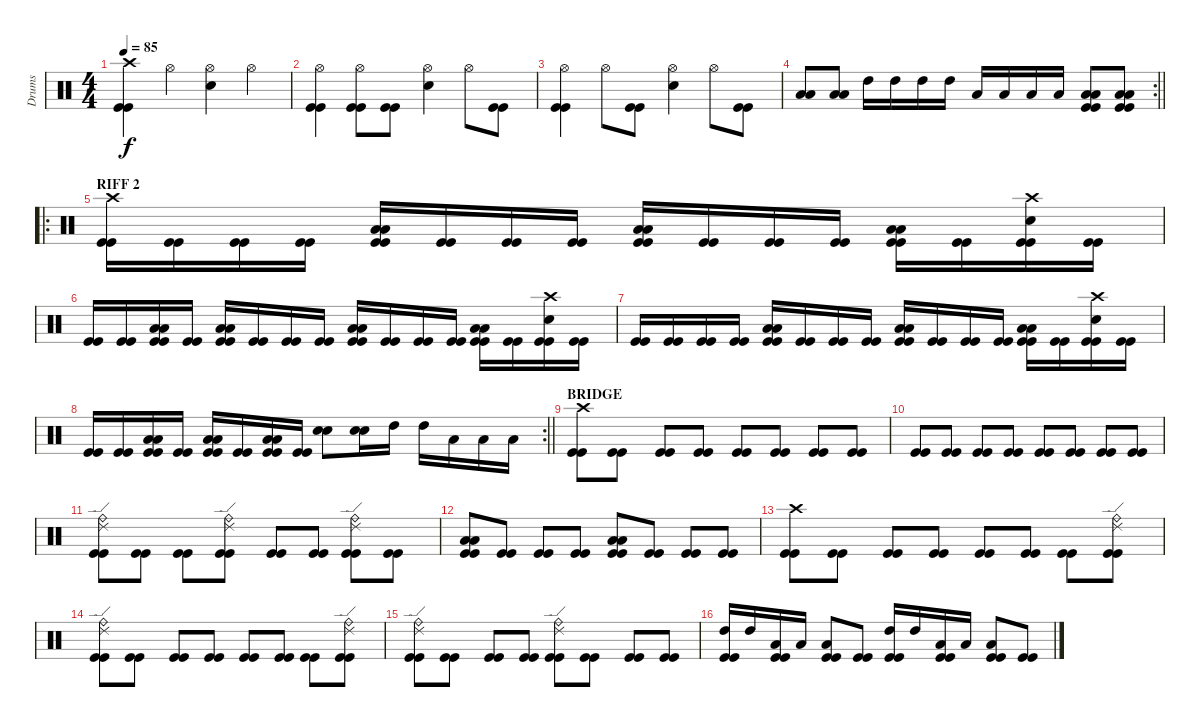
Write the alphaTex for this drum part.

\track ("Drums" "Drums") {instrument percussion}
\staff {score}
\articulation defaults
\ts (4 4)
\tempo 85
\clef neutral
\ks c
("Crash high (hit)" "Kick (hit)" "Kick (hit)").4{dy f} "Hi-Hat (open)".4 ("Hi-Hat (open)" "Snare (hit) 2").4 "Hi-Hat (open)".4 |
("Hi-Hat (open)" "Kick (hit)" "Kick (hit)").4 ("Hi-Hat (open)" "Kick (hit)" "Kick (hit)").8 ("Kick (hit)" "Kick (hit)").8 ("Hi-Hat (open)" "Snare (hit) 2").4 "Hi-Hat (open)".8 ("Kick (hit)" "Kick (hit)").8 |
("Hi-Hat (open)" "Kick (hit)" "Kick (hit)").4 "Hi-Hat (open)".8 ("Kick (hit)" "Kick (hit)").8 ("Hi-Hat (open)" "Snare (hit) 2").4 "Hi-Hat (open)".8 ("Kick (hit)" "Kick (hit)").8 |
\rc 2
\barLineRight lightlight
("Low Floor Tom (hit)" "Low Tom (hit)").8 ("Low Floor Tom (hit)" "Low Tom (hit)").8 "High Tom (hit)".16 "High Tom (hit)".16 "High Tom (hit)".16 "High Tom (hit)".16 "Low Tom (hit)".16 "Low Tom (hit)".16 "Low Tom (hit)".16 "Low Tom (hit)".16 ("Low Tom (hit)" "Low Floor Tom (hit)" "Kick (hit)" "Kick (hit)").8 ("Low Tom (hit)" "Low Floor Tom (hit)" "Kick (hit)" "Kick (hit)").8 |
\ro
\section ("" "RIFF 2")
("Crash high (hit)" "Kick (hit)" "Kick (hit)").16 ("Kick (hit)" "Kick (hit)").16 ("Kick (hit)" "Kick (hit)").16 ("Kick (hit)" "Kick (hit)").16 ("Low Floor Tom (hit)" "Low Tom (hit)" "Kick (hit)" "Kick (hit)").16 ("Kick (hit)" "Kick (hit)").16 ("Kick (hit)" "Kick (hit)").16 ("Kick (hit)" "Kick (hit)").16 ("Low Floor Tom (hit)" "Low Tom (hit)" "Kick (hit)" "Kick (hit)").16 ("Kick (hit)" "Kick (hit)").16 ("Kick (hit)" "Kick (hit)").16 ("Kick (hit)" "Kick (hit)").16 ("Low Floor Tom (hit)" "Low Tom (hit)" "Kick (hit)" "Kick (hit)").16 ("Kick (hit)" "Kick (hit)").16 ("Crash high (hit)" "Snare (hit) 2" "Kick (hit)" "Kick (hit)").16 ("Kick (hit)" "Kick (hit)").16 |
("Kick (hit)" "Kick (hit)").16 ("Kick (hit)" "Kick (hit)").16 ("Low Floor Tom (hit)" "Low Tom (hit)" "Kick (hit)" "Kick (hit)").16 ("Kick (hit)" "Kick (hit)").16 ("Low Floor Tom (hit)" "Low Tom (hit)" "Kick (hit)" "Kick (hit)").16 ("Kick (hit)" "Kick (hit)").16 ("Kick (hit)" "Kick (hit)").16 ("Kick (hit)" "Kick (hit)").16 ("Low Floor Tom (hit)" "Low Tom (hit)" "Kick (hit)" "Kick (hit)").16 ("Kick (hit)" "Kick (hit)").16 ("Kick (hit)" "Kick (hit)").16 ("Kick (hit)" "Kick (hit)").16 ("Low Floor Tom (hit)" "Low Tom (hit)" "Kick (hit)" "Kick (hit)").16 ("Kick (hit)" "Kick (hit)").16 ("Crash high (hit)" "Snare (hit) 2" "Kick (hit)" "Kick (hit)").16 ("Kick (hit)" "Kick (hit)").16 |
("Kick (hit)" "Kick (hit)").16 ("Kick (hit)" "Kick (hit)").16 ("Kick (hit)" "Kick (hit)").16 ("Kick (hit)" "Kick (hit)").16 ("Low Floor Tom (hit)" "Low Tom (hit)" "Kick (hit)" "Kick (hit)").16 ("Kick (hit)" "Kick (hit)").16 ("Kick (hit)" "Kick (hit)").16 ("Kick (hit)" "Kick (hit)").16 ("Low Floor Tom (hit)" "Low Tom (hit)" "Kick (hit)" "Kick (hit)").16 ("Kick (hit)" "Kick (hit)").16 ("Kick (hit)" "Kick (hit)").16 ("Kick (hit)" "Kick (hit)").16 ("Low Floor Tom (hit)" "Low Tom (hit)" "Kick (hit)" "Kick (hit)").16 ("Kick (hit)" "Kick (hit)").16 ("Crash high (hit)" "Snare (hit) 2" "Kick (hit)" "Kick (hit)").16 ("Kick (hit)" "Kick (hit)").16 |
\rc 2
\barLineRight lightlight
("Kick (hit)" "Kick (hit)").16 ("Kick (hit)" "Kick (hit)").16 ("Low Floor Tom (hit)" "Low Tom (hit)" "Kick (hit)" "Kick (hit)").16 ("Kick (hit)" "Kick (hit)").16 ("Low Floor Tom (hit)" "Low Tom (hit)" "Kick (hit)" "Kick (hit)").16 ("Kick (hit)" "Kick (hit)").16 ("Low Floor Tom (hit)" "Low Tom (hit)" "Kick (hit)" "Kick (hit)").16 ("Kick (hit)" "Kick (hit)").16 ("Snare (hit) 2" "Snare (hit) 2").8 ("Snare (hit) 2" "Snare (hit) 2").16 "High Tom (hit)".16 "High Tom (hit)".16 "Low Tom (hit)".16 "Low Tom (hit)".16 "Low Tom (hit)".16 |
\section ("" "BRIDGE")
("Crash high (hit)" "Kick (hit)" "Kick (hit)").8 ("Kick (hit)" "Kick (hit)").8 ("Kick (hit)" "Kick (hit)").8 ("Kick (hit)" "Kick (hit)").8 ("Kick (hit)" "Kick (hit)").8 ("Kick (hit)" "Kick (hit)").8 ("Kick (hit)" "Kick (hit)").8 ("Kick (hit)" "Kick (hit)").8 |
("Kick (hit)" "Kick (hit)").8 ("Kick (hit)" "Kick (hit)").8 ("Kick (hit)" "Kick (hit)").8 ("Kick (hit)" "Kick (hit)").8 ("Kick (hit)" "Kick (hit)").8 ("Kick (hit)" "Kick (hit)").8 ("Kick (hit)" "Kick (hit)").8 ("Kick (hit)" "Kick (hit)").8 |
("Ride (edge) 2" "Ride (bell)" "Kick (hit)" "Kick (hit)").8 ("Kick (hit)" "Kick (hit)").8 ("Kick (hit)" "Kick (hit)").8 ("Ride (edge) 2" "Ride (bell)" "Kick (hit)" "Kick (hit)").8 ("Kick (hit)" "Kick (hit)").8 ("Kick (hit)" "Kick (hit)").8 ("Ride (edge) 2" "Ride (bell)" "Kick (hit)" "Kick (hit)").8 ("Kick (hit)" "Kick (hit)").8 |
("Low Floor Tom (hit)" "Low Tom (hit)" "Kick (hit)" "Kick (hit)").8 ("Kick (hit)" "Kick (hit)").8 ("Kick (hit)" "Kick (hit)").8 ("Kick (hit)" "Kick (hit)").8 ("Low Floor Tom (hit)" "Low Tom (hit)" "Kick (hit)" "Kick (hit)").8 ("Kick (hit)" "Kick (hit)").8 ("Kick (hit)" "Kick (hit)").8 ("Kick (hit)" "Kick (hit)").8 |
("Crash high (hit)" "Kick (hit)" "Kick (hit)").8 ("Kick (hit)" "Kick (hit)").8 ("Kick (hit)" "Kick (hit)").8 ("Kick (hit)" "Kick (hit)").8 ("Kick (hit)" "Kick (hit)").8 ("Kick (hit)" "Kick (hit)").8 ("Kick (hit)" "Kick (hit)").8 ("Ride (edge) 2" "Ride (bell)" "Kick (hit)" "Kick (hit)").8 |
("Ride (edge) 2" "Ride (bell)" "Kick (hit)" "Kick (hit)").8 ("Kick (hit)" "Kick (hit)").8 ("Kick (hit)" "Kick (hit)").8 ("Kick (hit)" "Kick (hit)").8 ("Kick (hit)" "Kick (hit)").8 ("Kick (hit)" "Kick (hit)").8 ("Kick (hit)" "Kick (hit)").8 ("Ride (edge) 2" "Ride (bell)" "Kick (hit)" "Kick (hit)").8 |
("Ride (edge) 2" "Ride (bell)" "Kick (hit)" "Kick (hit)").8 ("Kick (hit)" "Kick (hit)").8 ("Kick (hit)" "Kick (hit)").8 ("Kick (hit)" "Kick (hit)").8 ("Ride (edge) 2" "Ride (bell)" "Kick (hit)" "Kick (hit)").8 ("Kick (hit)" "Kick (hit)").8 ("Kick (hit)" "Kick (hit)").8 ("Kick (hit)" "Kick (hit)").8 |
("High Tom (hit)" "Kick (hit)" "Kick (hit)").16 "High Tom (hit)".16 ("Low Tom (hit)" "Kick (hit)" "Kick (hit)").16 "Low Tom (hit)".16 ("Low Floor Tom (hit)" "Kick (hit)" "Kick (hit)").8 ("Kick (hit)" "Kick (hit)").8 ("High Tom (hit)" "Kick (hit)" "Kick (hit)").16 "High Tom (hit)".16 ("Low Tom (hit)" "Kick (hit)" "Kick (hit)").16 "Low Tom (hit)".16 ("Low Floor Tom (hit)" "Kick (hit)" "Kick (hit)").8 ("Kick (hit)" "Kick (hit)").8
